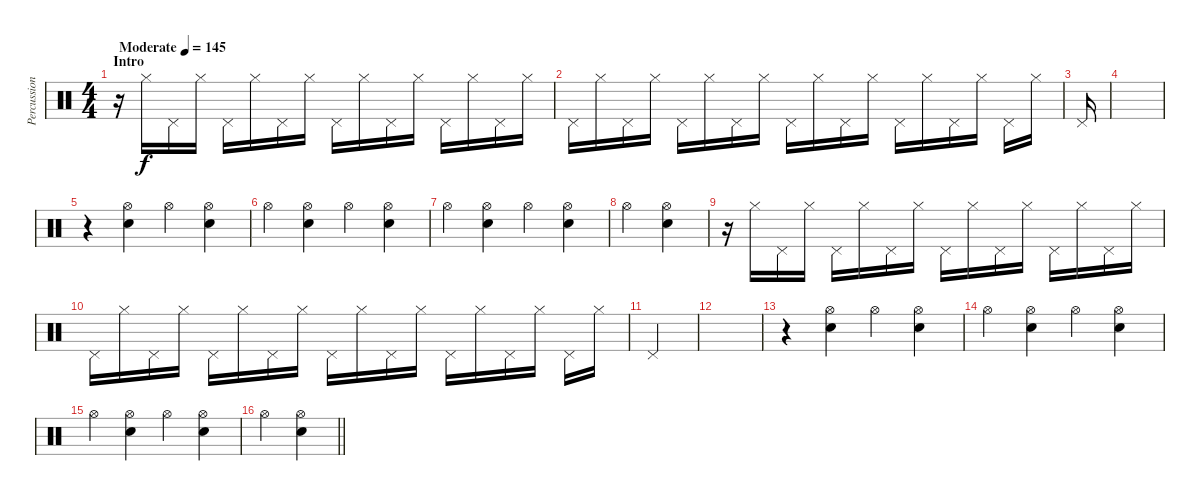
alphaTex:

\track ("Percussion" "Percussion") {instrument percussion}
\staff {score}
\articulation defaults
\ts (4 4)
\section ("" "Intro")
\tempo (145 "Moderate")
\clef neutral
\ks c
r.16{dy f} "Hi-Hat (closed)".16 "Pedal Hi-Hat (hit)".16 "Hi-Hat (closed)".16 "Pedal Hi-Hat (hit)".16 "Hi-Hat (closed)".16 "Pedal Hi-Hat (hit)".16 "Hi-Hat (closed)".16 "Pedal Hi-Hat (hit)".16 "Hi-Hat (closed)".16 "Pedal Hi-Hat (hit)".16 "Hi-Hat (closed)".16 "Pedal Hi-Hat (hit)".16 "Hi-Hat (closed)".16 "Pedal Hi-Hat (hit)".16 "Hi-Hat (closed)".16 |
"Pedal Hi-Hat (hit)".16 "Hi-Hat (closed)".16 "Pedal Hi-Hat (hit)".16 "Hi-Hat (closed)".16 "Pedal Hi-Hat (hit)".16 "Hi-Hat (closed)".16 "Pedal Hi-Hat (hit)".16 "Hi-Hat (closed)".16 "Pedal Hi-Hat (hit)".16 "Hi-Hat (closed)".16 "Pedal Hi-Hat (hit)".16 "Hi-Hat (closed)".16 "Pedal Hi-Hat (hit)".16 "Hi-Hat (closed)".16 "Pedal Hi-Hat (hit)".16 "Hi-Hat (closed)".16 "Pedal Hi-Hat (hit)".16 "Hi-Hat (closed)".16 |
"Pedal Hi-Hat (hit)".16 |
|
r.4 ("Hi-Hat (open)" "Electric Snare (hit)").4 "Hi-Hat (open)".4 ("Hi-Hat (open)" "Electric Snare (hit)").4 |
"Hi-Hat (open)".4 ("Hi-Hat (open)" "Electric Snare (hit)").4 "Hi-Hat (open)".4 ("Hi-Hat (open)" "Electric Snare (hit)").4 |
"Hi-Hat (open)".4 ("Hi-Hat (open)" "Electric Snare (hit)").4 "Hi-Hat (open)".4 ("Hi-Hat (open)" "Electric Snare (hit)").4 |
"Hi-Hat (open)".4 ("Hi-Hat (open)" "Electric Snare (hit)").4 |
r.16 "Hi-Hat (closed)".16 "Pedal Hi-Hat (hit)".16 "Hi-Hat (closed)".16 "Pedal Hi-Hat (hit)".16 "Hi-Hat (closed)".16 "Pedal Hi-Hat (hit)".16 "Hi-Hat (closed)".16 "Pedal Hi-Hat (hit)".16 "Hi-Hat (closed)".16 "Pedal Hi-Hat (hit)".16 "Hi-Hat (closed)".16 "Pedal Hi-Hat (hit)".16 "Hi-Hat (closed)".16 "Pedal Hi-Hat (hit)".16 "Hi-Hat (closed)".16 |
"Pedal Hi-Hat (hit)".16 "Hi-Hat (closed)".16 "Pedal Hi-Hat (hit)".16 "Hi-Hat (closed)".16 "Pedal Hi-Hat (hit)".16 "Hi-Hat (closed)".16 "Pedal Hi-Hat (hit)".16 "Hi-Hat (closed)".16 "Pedal Hi-Hat (hit)".16 "Hi-Hat (closed)".16 "Pedal Hi-Hat (hit)".16 "Hi-Hat (closed)".16 "Pedal Hi-Hat (hit)".16 "Hi-Hat (closed)".16 "Pedal Hi-Hat (hit)".16 "Hi-Hat (closed)".16 "Pedal Hi-Hat (hit)".16 "Hi-Hat (closed)".16 |
"Pedal Hi-Hat (hit)".4 |
|
r.4 ("Hi-Hat (open)" "Electric Snare (hit)").4 "Hi-Hat (open)".4 ("Hi-Hat (open)" "Electric Snare (hit)").4 |
"Hi-Hat (open)".4 ("Hi-Hat (open)" "Electric Snare (hit)").4 "Hi-Hat (open)".4 ("Hi-Hat (open)" "Electric Snare (hit)").4 |
"Hi-Hat (open)".4 ("Hi-Hat (open)" "Electric Snare (hit)").4 "Hi-Hat (open)".4 ("Hi-Hat (open)" "Electric Snare (hit)").4 |
\barLineRight lightlight "Hi-Hat (open)".4
("Hi-Hat (open)" "Electric Snare (hit)").4
